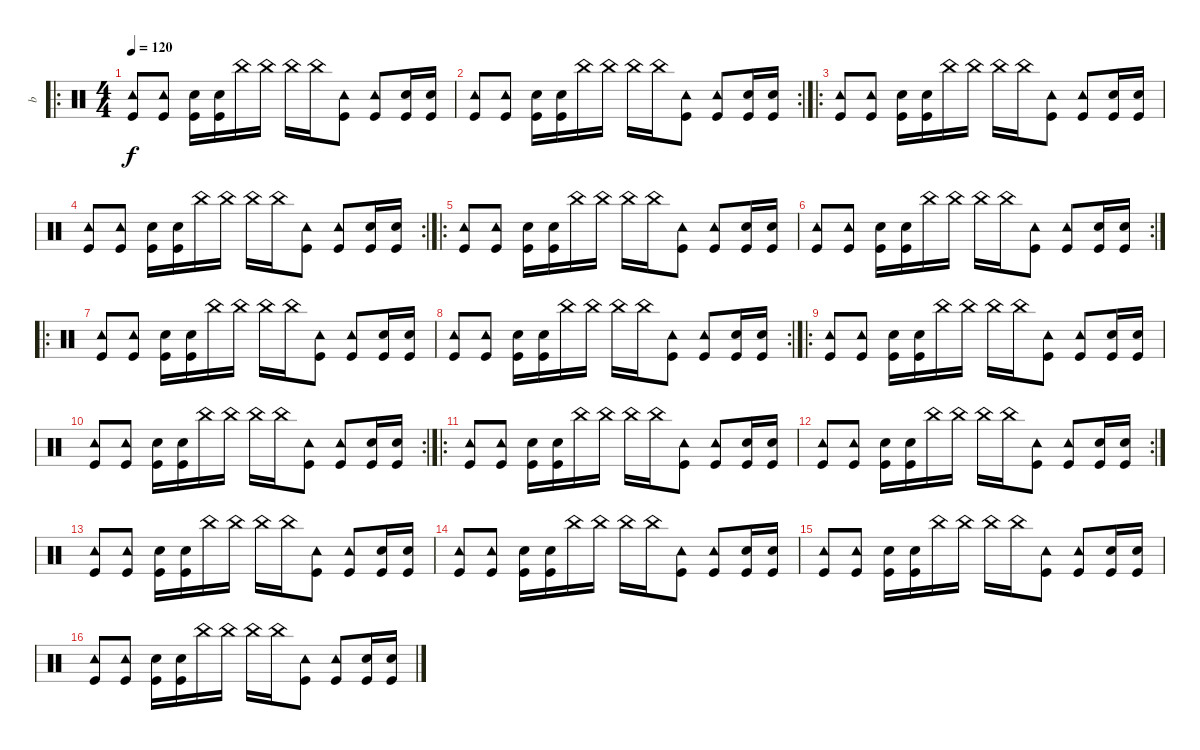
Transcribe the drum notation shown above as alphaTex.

\track ("b" "b") {instrument percussion}
\staff {score}
\articulation defaults
\ro
\ts (4 4)
\tempo 120
\clef neutral
\ks c
("Tambourine (hit)" "Kick (hit)").8{dy f volume 10} ("Tambourine (hit)" "Kick (hit)").8 ("Electric Snare (hit)" "Kick (hit)").16 ("Electric Snare (hit)" "Kick (hit)").16 "China (hit)".16 "China (hit)".16 "China (hit)".16 "China (hit)".16 ("Tambourine (hit)" "Kick (hit)").8 ("Tambourine (hit)" "Kick (hit)").8 ("Electric Snare (hit)" "Kick (hit)").16 ("Electric Snare (hit)" "Kick (hit)").16 |
\rc 2
("Tambourine (hit)" "Kick (hit)").8 ("Tambourine (hit)" "Kick (hit)").8 ("Electric Snare (hit)" "Kick (hit)").16 ("Electric Snare (hit)" "Kick (hit)").16 "China (hit)".16 "China (hit)".16 "China (hit)".16 "China (hit)".16 ("Tambourine (hit)" "Kick (hit)").8 ("Tambourine (hit)" "Kick (hit)").8 ("Electric Snare (hit)" "Kick (hit)").16 ("Electric Snare (hit)" "Kick (hit)").16 |
\ro
("Tambourine (hit)" "Kick (hit)").8 ("Tambourine (hit)" "Kick (hit)").8 ("Electric Snare (hit)" "Kick (hit)").16 ("Electric Snare (hit)" "Kick (hit)").16 "China (hit)".16 "China (hit)".16 "China (hit)".16 "China (hit)".16 ("Tambourine (hit)" "Kick (hit)").8 ("Tambourine (hit)" "Kick (hit)").8 ("Electric Snare (hit)" "Kick (hit)").16 ("Electric Snare (hit)" "Kick (hit)").16 |
\rc 2
("Tambourine (hit)" "Kick (hit)").8 ("Tambourine (hit)" "Kick (hit)").8 ("Electric Snare (hit)" "Kick (hit)").16 ("Electric Snare (hit)" "Kick (hit)").16 "China (hit)".16 "China (hit)".16 "China (hit)".16 "China (hit)".16 ("Tambourine (hit)" "Kick (hit)").8 ("Tambourine (hit)" "Kick (hit)").8 ("Electric Snare (hit)" "Kick (hit)").16 ("Electric Snare (hit)" "Kick (hit)").16 |
\ro
("Tambourine (hit)" "Kick (hit)").8 ("Tambourine (hit)" "Kick (hit)").8 ("Electric Snare (hit)" "Kick (hit)").16 ("Electric Snare (hit)" "Kick (hit)").16 "China (hit)".16 "China (hit)".16 "China (hit)".16 "China (hit)".16 ("Tambourine (hit)" "Kick (hit)").8 ("Tambourine (hit)" "Kick (hit)").8 ("Electric Snare (hit)" "Kick (hit)").16 ("Electric Snare (hit)" "Kick (hit)").16 |
\rc 2
("Tambourine (hit)" "Kick (hit)").8 ("Tambourine (hit)" "Kick (hit)").8 ("Electric Snare (hit)" "Kick (hit)").16 ("Electric Snare (hit)" "Kick (hit)").16 "China (hit)".16 "China (hit)".16 "China (hit)".16 "China (hit)".16 ("Tambourine (hit)" "Kick (hit)").8 ("Tambourine (hit)" "Kick (hit)").8 ("Electric Snare (hit)" "Kick (hit)").16 ("Electric Snare (hit)" "Kick (hit)").16 |
\ro
("Tambourine (hit)" "Kick (hit)").8 ("Tambourine (hit)" "Kick (hit)").8 ("Electric Snare (hit)" "Kick (hit)").16 ("Electric Snare (hit)" "Kick (hit)").16 "China (hit)".16 "China (hit)".16 "China (hit)".16 "China (hit)".16 ("Tambourine (hit)" "Kick (hit)").8 ("Tambourine (hit)" "Kick (hit)").8 ("Electric Snare (hit)" "Kick (hit)").16 ("Electric Snare (hit)" "Kick (hit)").16 |
\rc 2
("Tambourine (hit)" "Kick (hit)").8 ("Tambourine (hit)" "Kick (hit)").8 ("Electric Snare (hit)" "Kick (hit)").16 ("Electric Snare (hit)" "Kick (hit)").16 "China (hit)".16 "China (hit)".16 "China (hit)".16 "China (hit)".16 ("Tambourine (hit)" "Kick (hit)").8 ("Tambourine (hit)" "Kick (hit)").8 ("Electric Snare (hit)" "Kick (hit)").16 ("Electric Snare (hit)" "Kick (hit)").16 |
\ro
("Tambourine (hit)" "Kick (hit)").8 ("Tambourine (hit)" "Kick (hit)").8 ("Electric Snare (hit)" "Kick (hit)").16 ("Electric Snare (hit)" "Kick (hit)").16 "China (hit)".16 "China (hit)".16 "China (hit)".16 "China (hit)".16 ("Tambourine (hit)" "Kick (hit)").8 ("Tambourine (hit)" "Kick (hit)").8 ("Electric Snare (hit)" "Kick (hit)").16 ("Electric Snare (hit)" "Kick (hit)").16 |
\rc 2
("Tambourine (hit)" "Kick (hit)").8 ("Tambourine (hit)" "Kick (hit)").8 ("Electric Snare (hit)" "Kick (hit)").16 ("Electric Snare (hit)" "Kick (hit)").16 "China (hit)".16 "China (hit)".16 "China (hit)".16 "China (hit)".16 ("Tambourine (hit)" "Kick (hit)").8 ("Tambourine (hit)" "Kick (hit)").8 ("Electric Snare (hit)" "Kick (hit)").16 ("Electric Snare (hit)" "Kick (hit)").16 |
\ro
("Tambourine (hit)" "Kick (hit)").8 ("Tambourine (hit)" "Kick (hit)").8 ("Electric Snare (hit)" "Kick (hit)").16 ("Electric Snare (hit)" "Kick (hit)").16 "China (hit)".16 "China (hit)".16 "China (hit)".16 "China (hit)".16 ("Tambourine (hit)" "Kick (hit)").8 ("Tambourine (hit)" "Kick (hit)").8 ("Electric Snare (hit)" "Kick (hit)").16 ("Electric Snare (hit)" "Kick (hit)").16 |
\rc 2
("Tambourine (hit)" "Kick (hit)").8 ("Tambourine (hit)" "Kick (hit)").8 ("Electric Snare (hit)" "Kick (hit)").16 ("Electric Snare (hit)" "Kick (hit)").16 "China (hit)".16 "China (hit)".16 "China (hit)".16 "China (hit)".16 ("Tambourine (hit)" "Kick (hit)").8 ("Tambourine (hit)" "Kick (hit)").8 ("Electric Snare (hit)" "Kick (hit)").16 ("Electric Snare (hit)" "Kick (hit)").16 |
("Tambourine (hit)" "Kick (hit)").8 ("Tambourine (hit)" "Kick (hit)").8 ("Electric Snare (hit)" "Kick (hit)").16 ("Electric Snare (hit)" "Kick (hit)").16 "China (hit)".16 "China (hit)".16 "China (hit)".16 "China (hit)".16 ("Tambourine (hit)" "Kick (hit)").8 ("Tambourine (hit)" "Kick (hit)").8 ("Electric Snare (hit)" "Kick (hit)").16 ("Electric Snare (hit)" "Kick (hit)").16 |
("Tambourine (hit)" "Kick (hit)").8 ("Tambourine (hit)" "Kick (hit)").8 ("Electric Snare (hit)" "Kick (hit)").16 ("Electric Snare (hit)" "Kick (hit)").16 "China (hit)".16 "China (hit)".16 "China (hit)".16 "China (hit)".16 ("Tambourine (hit)" "Kick (hit)").8 ("Tambourine (hit)" "Kick (hit)").8 ("Electric Snare (hit)" "Kick (hit)").16 ("Electric Snare (hit)" "Kick (hit)").16 |
("Tambourine (hit)" "Kick (hit)").8 ("Tambourine (hit)" "Kick (hit)").8 ("Electric Snare (hit)" "Kick (hit)").16 ("Electric Snare (hit)" "Kick (hit)").16 "China (hit)".16 "China (hit)".16 "China (hit)".16 "China (hit)".16 ("Tambourine (hit)" "Kick (hit)").8 ("Tambourine (hit)" "Kick (hit)").8 ("Electric Snare (hit)" "Kick (hit)").16 ("Electric Snare (hit)" "Kick (hit)").16 |
("Tambourine (hit)" "Kick (hit)").8 ("Tambourine (hit)" "Kick (hit)").8 ("Electric Snare (hit)" "Kick (hit)").16 ("Electric Snare (hit)" "Kick (hit)").16 "China (hit)".16 "China (hit)".16 "China (hit)".16 "China (hit)".16 ("Tambourine (hit)" "Kick (hit)").8 ("Tambourine (hit)" "Kick (hit)").8 ("Electric Snare (hit)" "Kick (hit)").16 ("Electric Snare (hit)" "Kick (hit)").16
